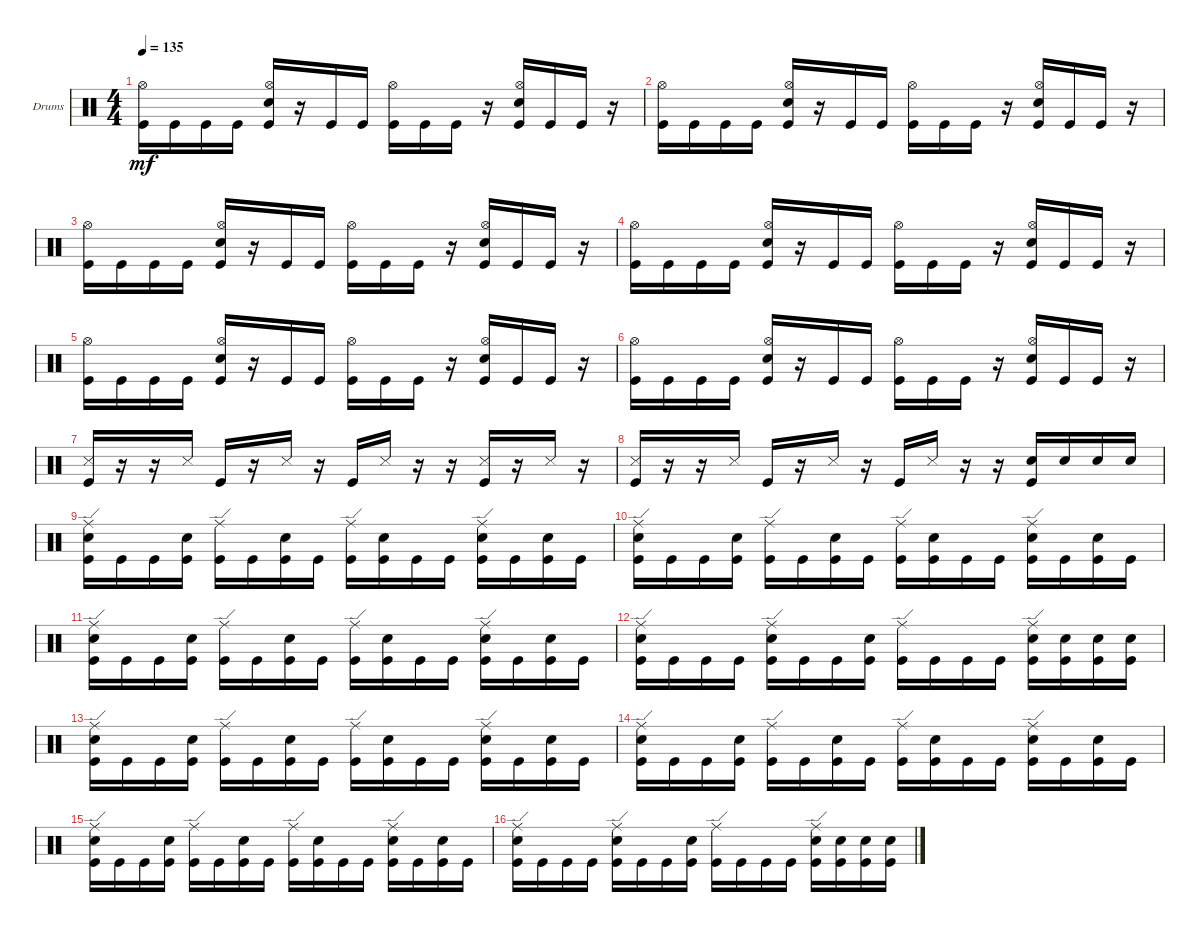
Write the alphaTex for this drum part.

\defaultSystemsLayout 4
\bracketExtendMode groupsimilarinstruments
\firstSystemTrackNameOrientation horizontal
\otherSystemsTrackNameOrientation horizontal
\track ("Rolo" "Drums") {instrument percussion}
\staff {score}
\articulation defaults
\ts (4 4)
\tempo 135
\clef neutral
\ks c
("Kick (hit)" "Hi-Hat (open)").16{dy mf} "Kick (hit)".16 "Kick (hit)".16 "Kick (hit)".16 ("Kick (hit)" "Snare (hit) 2" "Hi-Hat (open)").16 r.16 "Kick (hit)".16 "Kick (hit)".16 ("Kick (hit)" "Hi-Hat (open)").16 "Kick (hit)".16 "Kick (hit)".16 r.16 ("Kick (hit)" "Snare (hit) 2" "Hi-Hat (open)").16 "Kick (hit)".16 "Kick (hit)".16 r.16 |
("Kick (hit)" "Hi-Hat (open)").16 "Kick (hit)".16 "Kick (hit)".16 "Kick (hit)".16 ("Kick (hit)" "Snare (hit) 2" "Hi-Hat (open)").16 r.16 "Kick (hit)".16 "Kick (hit)".16 ("Kick (hit)" "Hi-Hat (open)").16 "Kick (hit)".16 "Kick (hit)".16 r.16 ("Kick (hit)" "Snare (hit) 2" "Hi-Hat (open)").16 "Kick (hit)".16 "Kick (hit)".16 r.16 |
("Kick (hit)" "Hi-Hat (open)").16 "Kick (hit)".16 "Kick (hit)".16 "Kick (hit)".16 ("Kick (hit)" "Snare (hit) 2" "Hi-Hat (open)").16 r.16 "Kick (hit)".16 "Kick (hit)".16 ("Kick (hit)" "Hi-Hat (open)").16 "Kick (hit)".16 "Kick (hit)".16 r.16 ("Kick (hit)" "Snare (hit) 2" "Hi-Hat (open)").16 "Kick (hit)".16 "Kick (hit)".16 r.16 |
("Kick (hit)" "Hi-Hat (open)").16 "Kick (hit)".16 "Kick (hit)".16 "Kick (hit)".16 ("Kick (hit)" "Snare (hit) 2" "Hi-Hat (open)").16 r.16 "Kick (hit)".16 "Kick (hit)".16 ("Kick (hit)" "Hi-Hat (open)").16 "Kick (hit)".16 "Kick (hit)".16 r.16 ("Kick (hit)" "Snare (hit) 2" "Hi-Hat (open)").16 "Kick (hit)".16 "Kick (hit)".16 r.16 |
("Kick (hit)" "Hi-Hat (open)").16 "Kick (hit)".16 "Kick (hit)".16 "Kick (hit)".16 ("Kick (hit)" "Snare (hit) 2" "Hi-Hat (open)").16 r.16 "Kick (hit)".16 "Kick (hit)".16 ("Kick (hit)" "Hi-Hat (open)").16 "Kick (hit)".16 "Kick (hit)".16 r.16 ("Kick (hit)" "Snare (hit) 2" "Hi-Hat (open)").16 "Kick (hit)".16 "Kick (hit)".16 r.16 |
("Kick (hit)" "Hi-Hat (open)").16 "Kick (hit)".16 "Kick (hit)".16 "Kick (hit)".16 ("Kick (hit)" "Snare (hit) 2" "Hi-Hat (open)").16 r.16 "Kick (hit)".16 "Kick (hit)".16 ("Kick (hit)" "Hi-Hat (open)").16 "Kick (hit)".16 "Kick (hit)".16 r.16 ("Kick (hit)" "Snare (hit) 2" "Hi-Hat (open)").16 "Kick (hit)".16 "Kick (hit)".16 r.16 |
("Kick (hit)" "Snare (side stick) 3").16 r.16 r.16 "Snare (side stick) 3".16 "Kick (hit)".16 r.16 "Snare (side stick) 3".16 r.16 "Kick (hit)".16 "Snare (side stick) 3".16 r.16 r.16 ("Kick (hit)" "Snare (side stick) 3").16 r.16 "Snare (side stick) 3".16 r.16 |
("Kick (hit)" "Snare (side stick) 3").16 r.16 r.16 "Snare (side stick) 3".16 "Kick (hit)".16 r.16 "Snare (side stick) 3".16 r.16 "Kick (hit)".16 "Snare (side stick) 3".16 r.16 r.16 ("Kick (hit)" "Snare (hit) 2").16 "Snare (hit) 2".16 "Snare (hit) 2".16 "Snare (hit) 2".16 |
("Kick (hit)" "Snare (hit) 2" "Ride (edge)").16 "Kick (hit)".16 "Kick (hit)".16 ("Kick (hit)" "Snare (hit) 2").16 ("Kick (hit)" "Ride (edge)").16 "Kick (hit)".16 ("Kick (hit)" "Snare (hit) 2").16 "Kick (hit)".16 ("Kick (hit)" "Ride (edge)").16 ("Kick (hit)" "Snare (hit) 2").16 "Kick (hit)".16 "Kick (hit)".16 ("Kick (hit)" "Snare (hit) 2" "Ride (edge)").16 "Kick (hit)".16 ("Kick (hit)" "Snare (hit) 2").16 "Kick (hit)".16 |
("Kick (hit)" "Snare (hit) 2" "Ride (edge)").16 "Kick (hit)".16 "Kick (hit)".16 ("Kick (hit)" "Snare (hit) 2").16 ("Kick (hit)" "Ride (edge)").16 "Kick (hit)".16 ("Kick (hit)" "Snare (hit) 2").16 "Kick (hit)".16 ("Kick (hit)" "Ride (edge)").16 ("Kick (hit)" "Snare (hit) 2").16 "Kick (hit)".16 "Kick (hit)".16 ("Kick (hit)" "Snare (hit) 2" "Ride (edge)").16 "Kick (hit)".16 ("Kick (hit)" "Snare (hit) 2").16 "Kick (hit)".16 |
("Kick (hit)" "Snare (hit) 2" "Ride (edge)").16 "Kick (hit)".16 "Kick (hit)".16 ("Kick (hit)" "Snare (hit) 2").16 ("Kick (hit)" "Ride (edge)").16 "Kick (hit)".16 ("Kick (hit)" "Snare (hit) 2").16 "Kick (hit)".16 ("Kick (hit)" "Ride (edge)").16 ("Kick (hit)" "Snare (hit) 2").16 "Kick (hit)".16 "Kick (hit)".16 ("Kick (hit)" "Snare (hit) 2" "Ride (edge)").16 "Kick (hit)".16 ("Kick (hit)" "Snare (hit) 2").16 "Kick (hit)".16 |
("Kick (hit)" "Ride (edge)" "Snare (hit) 2").16 "Kick (hit)".16 "Kick (hit)".16 "Kick (hit)".16 ("Kick (hit)" "Ride (edge)" "Snare (hit) 2").16 "Kick (hit)".16 "Kick (hit)".16 ("Kick (hit)" "Snare (hit) 2").16 ("Kick (hit)" "Ride (edge)").16 "Kick (hit)".16 "Kick (hit)".16 "Kick (hit)".16 ("Kick (hit)" "Ride (edge)" "Snare (hit) 2").16 ("Kick (hit)" "Snare (hit) 2").16 ("Kick (hit)" "Snare (hit) 2").16 ("Kick (hit)" "Snare (hit) 2").16 |
("Kick (hit)" "Snare (hit) 2" "Ride (edge)").16 "Kick (hit)".16 "Kick (hit)".16 ("Kick (hit)" "Snare (hit) 2").16 ("Kick (hit)" "Ride (edge)").16 "Kick (hit)".16 ("Kick (hit)" "Snare (hit) 2").16 "Kick (hit)".16 ("Kick (hit)" "Ride (edge)").16 ("Kick (hit)" "Snare (hit) 2").16 "Kick (hit)".16 "Kick (hit)".16 ("Kick (hit)" "Snare (hit) 2" "Ride (edge)").16 "Kick (hit)".16 ("Kick (hit)" "Snare (hit) 2").16 "Kick (hit)".16 |
("Kick (hit)" "Snare (hit) 2" "Ride (edge)").16 "Kick (hit)".16 "Kick (hit)".16 ("Kick (hit)" "Snare (hit) 2").16 ("Kick (hit)" "Ride (edge)").16 "Kick (hit)".16 ("Kick (hit)" "Snare (hit) 2").16 "Kick (hit)".16 ("Kick (hit)" "Ride (edge)").16 ("Kick (hit)" "Snare (hit) 2").16 "Kick (hit)".16 "Kick (hit)".16 ("Kick (hit)" "Snare (hit) 2" "Ride (edge)").16 "Kick (hit)".16 ("Kick (hit)" "Snare (hit) 2").16 "Kick (hit)".16 |
("Kick (hit)" "Snare (hit) 2" "Ride (edge)").16 "Kick (hit)".16 "Kick (hit)".16 ("Kick (hit)" "Snare (hit) 2").16 ("Kick (hit)" "Ride (edge)").16 "Kick (hit)".16 ("Kick (hit)" "Snare (hit) 2").16 "Kick (hit)".16 ("Kick (hit)" "Ride (edge)").16 ("Kick (hit)" "Snare (hit) 2").16 "Kick (hit)".16 "Kick (hit)".16 ("Kick (hit)" "Snare (hit) 2" "Ride (edge)").16 "Kick (hit)".16 ("Kick (hit)" "Snare (hit) 2").16 "Kick (hit)".16 |
("Kick (hit)" "Ride (edge)" "Snare (hit) 2").16 "Kick (hit)".16 "Kick (hit)".16 "Kick (hit)".16 ("Kick (hit)" "Ride (edge)" "Snare (hit) 2").16 "Kick (hit)".16 "Kick (hit)".16 ("Kick (hit)" "Snare (hit) 2").16 ("Kick (hit)" "Ride (edge)").16 "Kick (hit)".16 "Kick (hit)".16 "Kick (hit)".16 ("Kick (hit)" "Ride (edge)" "Snare (hit) 2").16 ("Kick (hit)" "Snare (hit) 2").16 ("Kick (hit)" "Snare (hit) 2").16 ("Kick (hit)" "Snare (hit) 2").16
